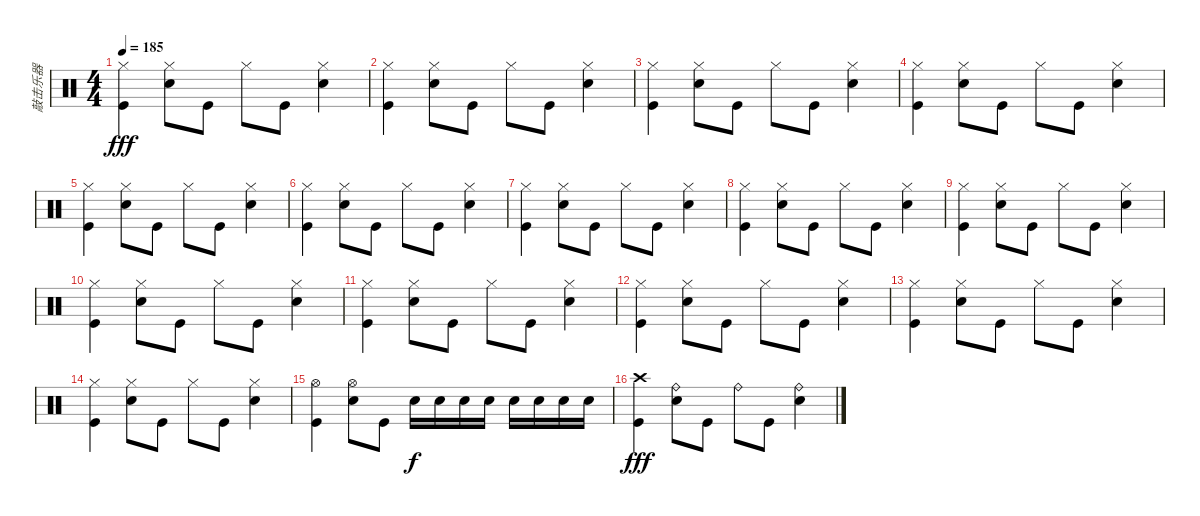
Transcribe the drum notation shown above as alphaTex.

\track ("敲击乐器" "敲击乐器") {instrument percussion}
\staff {score}
\articulation defaults
\ts (4 4)
\tempo 185
\clef neutral
\ks c
("Hi-Hat (closed)" "Kick (hit)").4{dy fff} ("Hi-Hat (closed)" "Snare (hit) 2").8 "Kick (hit)".8 "Hi-Hat (closed)".8 "Kick (hit)".8 ("Hi-Hat (closed)" "Snare (hit) 2").4 |
("Hi-Hat (closed)" "Kick (hit)").4 ("Hi-Hat (closed)" "Snare (hit) 2").8 "Kick (hit)".8 "Hi-Hat (closed)".8 "Kick (hit)".8 ("Hi-Hat (closed)" "Snare (hit) 2").4 |
("Hi-Hat (closed)" "Kick (hit)").4 ("Hi-Hat (closed)" "Snare (hit) 2").8 "Kick (hit)".8 "Hi-Hat (closed)".8 "Kick (hit)".8 ("Hi-Hat (closed)" "Snare (hit) 2").4 |
("Hi-Hat (closed)" "Kick (hit)").4 ("Hi-Hat (closed)" "Snare (hit) 2").8 "Kick (hit)".8 "Hi-Hat (closed)".8 "Kick (hit)".8 ("Hi-Hat (closed)" "Snare (hit) 2").4 |
("Hi-Hat (closed)" "Kick (hit)").4 ("Hi-Hat (closed)" "Snare (hit) 2").8 "Kick (hit)".8 "Hi-Hat (closed)".8 "Kick (hit)".8 ("Hi-Hat (closed)" "Snare (hit) 2").4 |
("Hi-Hat (closed)" "Kick (hit)").4 ("Hi-Hat (closed)" "Snare (hit) 2").8 "Kick (hit)".8 "Hi-Hat (closed)".8 "Kick (hit)".8 ("Hi-Hat (closed)" "Snare (hit) 2").4 |
("Hi-Hat (closed)" "Kick (hit)").4 ("Hi-Hat (closed)" "Snare (hit) 2").8 "Kick (hit)".8 "Hi-Hat (closed)".8 "Kick (hit)".8 ("Hi-Hat (closed)" "Snare (hit) 2").4 |
("Hi-Hat (closed)" "Kick (hit)").4 ("Hi-Hat (closed)" "Snare (hit) 2").8 "Kick (hit)".8 "Hi-Hat (closed)".8 "Kick (hit)".8 ("Hi-Hat (closed)" "Snare (hit) 2").4 |
("Hi-Hat (closed)" "Kick (hit)").4 ("Hi-Hat (closed)" "Snare (hit) 2").8 "Kick (hit)".8 "Hi-Hat (closed)".8 "Kick (hit)".8 ("Hi-Hat (closed)" "Snare (hit) 2").4 |
("Hi-Hat (closed)" "Kick (hit)").4 ("Hi-Hat (closed)" "Snare (hit) 2").8 "Kick (hit)".8 "Hi-Hat (closed)".8 "Kick (hit)".8 ("Hi-Hat (closed)" "Snare (hit) 2").4 |
("Hi-Hat (closed)" "Kick (hit)").4 ("Hi-Hat (closed)" "Snare (hit) 2").8 "Kick (hit)".8 "Hi-Hat (closed)".8 "Kick (hit)".8 ("Hi-Hat (closed)" "Snare (hit) 2").4 |
("Hi-Hat (closed)" "Kick (hit)").4 ("Hi-Hat (closed)" "Snare (hit) 2").8 "Kick (hit)".8 "Hi-Hat (closed)".8 "Kick (hit)".8 ("Hi-Hat (closed)" "Snare (hit) 2").4 |
("Hi-Hat (closed)" "Kick (hit)").4 ("Hi-Hat (closed)" "Snare (hit) 2").8 "Kick (hit)".8 "Hi-Hat (closed)".8 "Kick (hit)".8 ("Hi-Hat (closed)" "Snare (hit) 2").4 |
("Hi-Hat (closed)" "Kick (hit)").4 ("Hi-Hat (closed)" "Snare (hit) 2").8 "Kick (hit)".8 "Hi-Hat (closed)".8 "Kick (hit)".8 ("Hi-Hat (closed)" "Snare (hit) 2").4 |
("Hi-Hat (open)" "Kick (hit)").4 ("Hi-Hat (open)" "Snare (hit) 2").8 "Kick (hit)".8 "Snare (hit) 2".16{dy f} "Snare (hit) 2".16 "Snare (hit) 2".16 "Snare (hit) 2".16 "Snare (hit) 2".16 "Snare (hit) 2".16 "Snare (hit) 2".16 "Snare (hit) 2".16 |
("Crash high (hit)" "Kick (hit)").4{dy fff} ("Ride (bell)" "Snare (hit) 2").8 "Kick (hit)".8 "Ride (bell)".8 "Kick (hit)".8 ("Ride (bell)" "Snare (hit) 2").4
